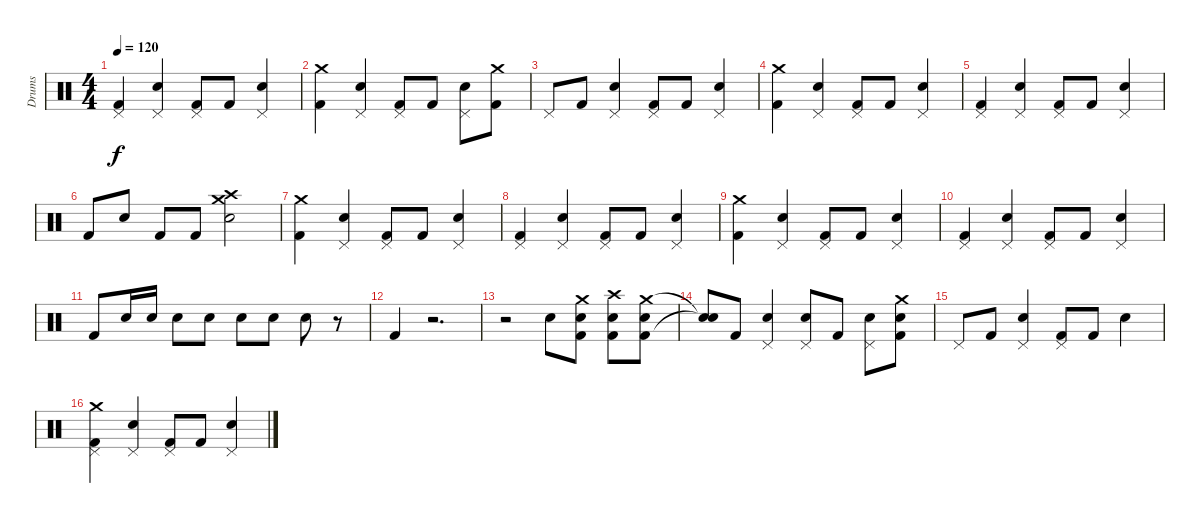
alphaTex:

\track ("Drums" "Drums") {instrument percussion}
\staff {score}
\articulation defaults
\ts (4 4)
\tempo 120
\clef neutral
\ks c
("Pedal Hi-Hat (hit)" "Kick (hit) 2").4{dy f} ("Pedal Hi-Hat (hit)" "Snare (hit) 2").4 ("Pedal Hi-Hat (hit)" "Kick (hit) 2").8 "Kick (hit) 2".8 ("Pedal Hi-Hat (hit)" "Snare (hit) 2").4 |
("Crash medium (hit)" "Kick (hit) 2").4 ("Pedal Hi-Hat (hit)" "Snare (hit) 2").4 ("Pedal Hi-Hat (hit)" "Kick (hit) 2").8 "Kick (hit) 2".8 ("Pedal Hi-Hat (hit)" "Snare (hit) 2").8 ("Crash medium (hit)" "Kick (hit) 2").8 |
"Pedal Hi-Hat (hit)".8 "Kick (hit) 2".8 ("Pedal Hi-Hat (hit)" "Snare (hit) 2").4 ("Pedal Hi-Hat (hit)" "Kick (hit) 2").8 "Kick (hit) 2".8 ("Pedal Hi-Hat (hit)" "Snare (hit) 2").4 |
("Crash medium (hit)" "Kick (hit) 2").4 ("Pedal Hi-Hat (hit)" "Snare (hit) 2").4 ("Pedal Hi-Hat (hit)" "Kick (hit) 2").8 "Kick (hit) 2".8 ("Pedal Hi-Hat (hit)" "Snare (hit) 2").4 |
("Pedal Hi-Hat (hit)" "Kick (hit) 2").4 ("Pedal Hi-Hat (hit)" "Snare (hit) 2").4 ("Pedal Hi-Hat (hit)" "Kick (hit) 2").8 "Kick (hit) 2".8 ("Pedal Hi-Hat (hit)" "Snare (hit) 2").4 |
"Kick (hit) 2".8 "Snare (hit) 2".8 "Kick (hit) 2".8 "Kick (hit) 2".8 ("Crash high (hit)" "Crash medium (hit)" "Snare (hit) 2").2 |
("Crash medium (hit)" "Kick (hit) 2").4 ("Pedal Hi-Hat (hit)" "Snare (hit) 2").4 ("Pedal Hi-Hat (hit)" "Kick (hit) 2").8 "Kick (hit) 2".8 ("Pedal Hi-Hat (hit)" "Snare (hit) 2").4 |
("Pedal Hi-Hat (hit)" "Kick (hit) 2").4 ("Pedal Hi-Hat (hit)" "Snare (hit) 2").4 ("Pedal Hi-Hat (hit)" "Kick (hit) 2").8 "Kick (hit) 2".8 ("Pedal Hi-Hat (hit)" "Snare (hit) 2").4 |
("Crash medium (hit)" "Kick (hit) 2").4 ("Pedal Hi-Hat (hit)" "Snare (hit) 2").4 ("Pedal Hi-Hat (hit)" "Kick (hit) 2").8 "Kick (hit) 2".8 ("Pedal Hi-Hat (hit)" "Snare (hit) 2").4 |
("Pedal Hi-Hat (hit)" "Kick (hit) 2").4 ("Pedal Hi-Hat (hit)" "Snare (hit) 2").4 ("Pedal Hi-Hat (hit)" "Kick (hit) 2").8 "Kick (hit) 2".8 ("Pedal Hi-Hat (hit)" "Snare (hit) 2").4 |
"Kick (hit) 2".8 "Snare (hit) 2".16 "Snare (hit) 2".16 "Snare (hit) 2".8 "Snare (hit) 2".8 "Snare (hit) 2".8 "Snare (hit) 2".8 "Snare (hit) 2".8 r.8 |
"Kick (hit) 2".4 r.2{d} |
r.2 "Snare (hit) 2".8 ("Crash medium (hit)" "Kick (hit) 2" "Snare (hit) 2").8 ("Crash high (hit)" "Snare (hit) 2" "Kick (hit) 2").8 ("Crash medium (hit)" "Kick (hit) 2" "Snare (hit) 2").8 |
("Snare (hit)"{t} "Snare (hit)"{t}).8 "Kick (hit) 2".8 ("Pedal Hi-Hat (hit)" "Snare (hit) 2").4 ("Pedal Hi-Hat (hit)" "Snare (hit) 2").8 "Kick (hit) 2".8 ("Pedal Hi-Hat (hit)" "Snare (hit) 2").8 ("Crash medium (hit)" "Kick (hit) 2" "Snare (hit) 2").8 |
"Pedal Hi-Hat (hit)".8 "Kick (hit) 2".8 ("Pedal Hi-Hat (hit)" "Snare (hit) 2").4 ("Pedal Hi-Hat (hit)" "Kick (hit) 2").8 "Kick (hit) 2".8 "Snare (hit) 2".4 |
("Pedal Hi-Hat (hit)" "Crash medium (hit)" "Kick (hit) 2").4 ("Pedal Hi-Hat (hit)" "Snare (hit) 2").4 ("Pedal Hi-Hat (hit)" "Kick (hit) 2").8 "Kick (hit) 2".8 ("Pedal Hi-Hat (hit)" "Snare (hit) 2").4
